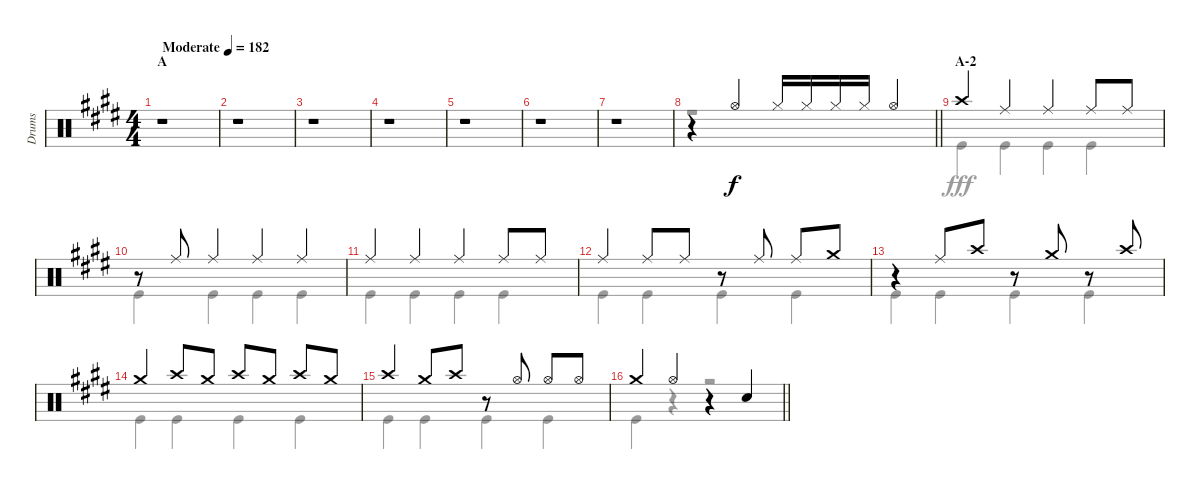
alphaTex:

\track ("Drums" "Drums") {instrument percussion}
\staff {score}
\articulation defaults
\voice
\ts (4 4)
\section ("" "A")
\tempo (182 "Moderate")
\clef neutral
\ks e
r.1{dy f} |
r.1 |
r.1 |
r.1 |
r.1 |
r.1 |
r.1 |
\barLineRight lightlight
r.4 "Hi-Hat (open)".4 "Hi-Hat (closed)".16 "Hi-Hat (closed)".16 "Hi-Hat (closed)".16 "Hi-Hat (closed)".16 "Hi-Hat (open)".4 |
\section ("" "A-2")
"Crash high (hit)".4 "Ride (middle)".4 "Ride (middle)".4 "Ride (middle)".8 "Ride (middle)".8 |
r.8 "Ride (middle)".8 "Ride (middle)".4 "Ride (middle)".4 "Ride (middle)".4 |
"Ride (middle)".4 "Ride (middle)".4 "Ride (middle)".4 "Ride (middle)".8 "Ride (middle)".8 |
"Ride (middle)".4 "Ride (middle)".8 "Ride (middle)".8 r.8 "Ride (middle)".8 "Ride (middle)".8 "Crash medium (hit)".8 |
r.4 "Ride (middle)".8 "Crash high (hit)".8 r.8 "Crash medium (hit)".8 r.8 "Crash high (hit)".8 |
"Crash medium (hit)".4 "Crash high (hit)".8 "Crash medium (hit)".8 "Crash high (hit)".8 "Crash medium (hit)".8 "Crash high (hit)".8 "Crash medium (hit)".8 |
"Crash high (hit)".4 "Crash medium (hit)".8 "Crash high (hit)".8 r.8 "Hi-Hat (open)".8 "Hi-Hat (open)".8 "Hi-Hat (open)".8 |
\barLineRight lightlight "Crash medium (hit)".4 "Hi-Hat (open)".4
r.4 "Snare (hit) 2".4
\voice
\clef neutral
\ottava regular
\simile none
\ks e
r.1{dy fff} |
r.1 |
r.1 |
r.1 |
r.1 |
r.1 |
r.1 |
\barLineRight lightlight
r.1 |
"Kick (hit)".4 "Kick (hit)".4 "Kick (hit)".4 "Kick (hit)".4 |
"Kick (hit)".4 "Kick (hit)".4 "Kick (hit)".4 "Kick (hit)".4 |
"Kick (hit)".4 "Kick (hit)".4 "Kick (hit)".4 "Kick (hit)".4 |
"Kick (hit)".4 "Kick (hit)".4 "Kick (hit)".4 "Kick (hit)".4 |
"Kick (hit)".4 "Kick (hit)".4 "Kick (hit)".4 "Kick (hit)".4 |
"Kick (hit)".4 "Kick (hit)".4 "Kick (hit)".4 "Kick (hit)".4 |
"Kick (hit)".4 "Kick (hit)".4 "Kick (hit)".4 "Kick (hit)".4 |
\barLineRight lightlight "Kick (hit)".4
r.4 r.2
